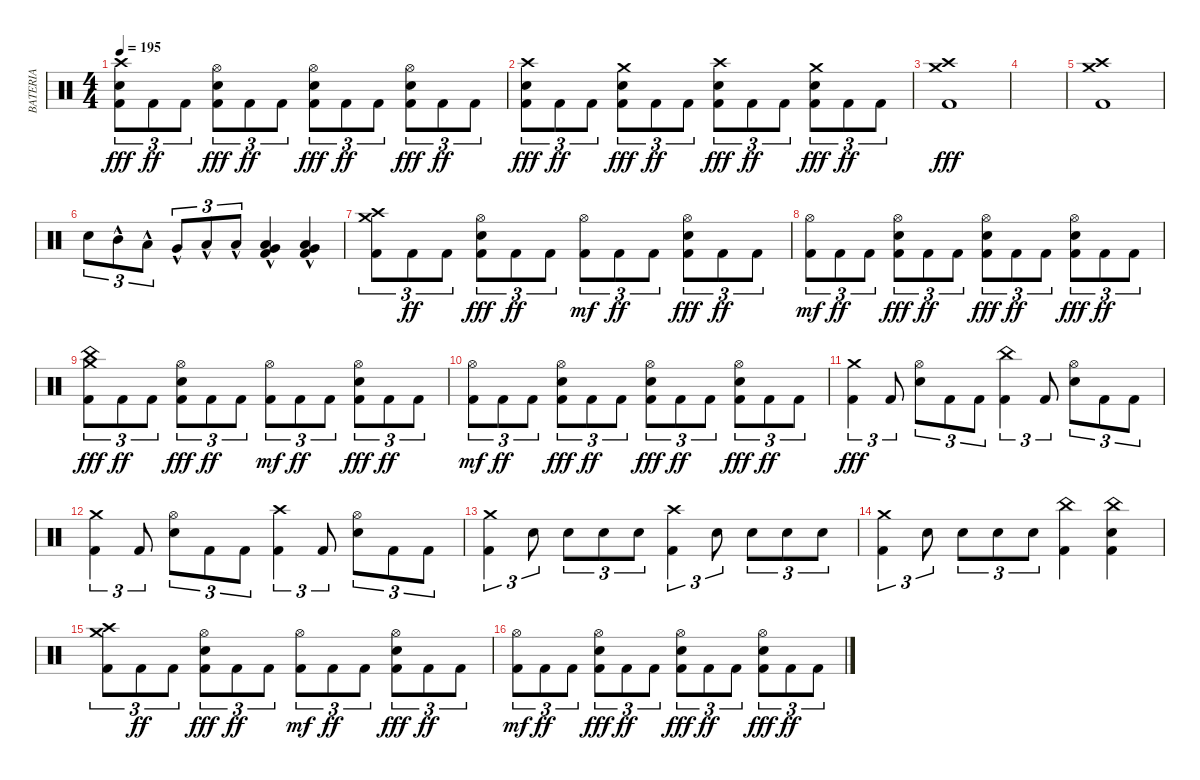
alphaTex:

\track ("BATERIA" "BATERIA") {instrument percussion}
\staff
\articulation defaults
\ts (4 4)
\tempo 195
\clef neutral
\ks c
("Kick (hit) 2" "Electric Snare (hit)" "Crash high (hit)").8{tu (3 2) dy fff} "Kick (hit) 2".8{tu (3 2) dy ff} "Kick (hit) 2".8{tu (3 2)} ("Kick (hit) 2" "Electric Snare (hit)" "Hi-Hat (open)").8{tu (3 2) dy fff} "Kick (hit) 2".8{tu (3 2) dy ff} "Kick (hit) 2".8{tu (3 2)} ("Kick (hit) 2" "Electric Snare (hit)" "Hi-Hat (open)").8{tu (3 2) dy fff} "Kick (hit) 2".8{tu (3 2) dy ff} "Kick (hit) 2".8{tu (3 2)} ("Kick (hit) 2" "Electric Snare (hit)" "Hi-Hat (open)").8{tu (3 2) dy fff} "Kick (hit) 2".8{tu (3 2) dy ff} "Kick (hit) 2".8{tu (3 2)} |
("Kick (hit) 2" "Electric Snare (hit)" "Crash high (hit)").8{tu (3 2) dy fff} "Kick (hit) 2".8{tu (3 2) dy ff} "Kick (hit) 2".8{tu (3 2)} ("Kick (hit) 2" "Electric Snare (hit)" "Crash medium (hit)").8{tu (3 2) dy fff} "Kick (hit) 2".8{tu (3 2) dy ff} "Kick (hit) 2".8{tu (3 2)} ("Kick (hit) 2" "Electric Snare (hit)" "Crash high (hit)").8{tu (3 2) dy fff} "Kick (hit) 2".8{tu (3 2) dy ff} "Kick (hit) 2".8{tu (3 2)} ("Kick (hit) 2" "Electric Snare (hit)" "Crash medium (hit)").8{tu (3 2) dy fff} "Kick (hit) 2".8{tu (3 2) dy ff} "Kick (hit) 2".8{tu (3 2)} |
("Kick (hit) 2" "Crash high (hit)" "Crash medium (hit)").1{dy fff} |
|
("Kick (hit) 2" "Crash high (hit)" "Crash medium (hit)").1 |
"Electric Snare (hit)".8{tu (3 2)} "Mid Tom (hit)"{hac}.8{tu (3 2)} "Low Tom (hit)"{hac}.8{tu (3 2)} "Very Low Tom (hit)"{hac}.8{tu (3 2)} "Low Floor Tom (hit)"{hac}.8{tu (3 2)} "Low Floor Tom (hit)"{hac}.8{tu (3 2)} ("Kick (hit) 2" "Very Low Tom (hit)"{hac} "Low Floor Tom (hit)"{hac}).4 ("Kick (hit) 2" "Very Low Tom (hit)"{hac} "Low Floor Tom (hit)"{hac}).4 |
("Kick (hit) 2" "Crash high (hit)" "Crash medium (hit)").8{tu (3 2)} "Kick (hit) 2".8{tu (3 2) dy ff} "Kick (hit) 2".8{tu (3 2)} ("Kick (hit) 2" "Electric Snare (hit)" "Hi-Hat (open)").8{tu (3 2) dy fff} "Kick (hit) 2".8{tu (3 2) dy ff} "Kick (hit) 2".8{tu (3 2)} ("Kick (hit) 2" "Hi-Hat (open)").8{tu (3 2) dy mf} "Kick (hit) 2".8{tu (3 2) dy ff} "Kick (hit) 2".8{tu (3 2)} ("Kick (hit) 2" "Electric Snare (hit)" "Hi-Hat (open)").8{tu (3 2) dy fff} "Kick (hit) 2".8{tu (3 2) dy ff} "Kick (hit) 2".8{tu (3 2)} |
("Kick (hit) 2" "Hi-Hat (open)").8{tu (3 2) dy mf} "Kick (hit) 2".8{tu (3 2) dy ff} "Kick (hit) 2".8{tu (3 2)} ("Kick (hit) 2" "Electric Snare (hit)" "Hi-Hat (open)").8{tu (3 2) dy fff} "Kick (hit) 2".8{tu (3 2) dy ff} "Kick (hit) 2".8{tu (3 2)} ("Kick (hit) 2" "Electric Snare (hit)" "Hi-Hat (open)").8{tu (3 2) dy fff} "Kick (hit) 2".8{tu (3 2) dy ff} "Kick (hit) 2".8{tu (3 2)} ("Kick (hit) 2" "Electric Snare (hit)" "Hi-Hat (open)").8{tu (3 2) dy fff} "Kick (hit) 2".8{tu (3 2) dy ff} "Kick (hit) 2".8{tu (3 2)} |
("Kick (hit) 2" "Crash medium (hit)" "China (hit)").8{tu (3 2) dy fff} "Kick (hit) 2".8{tu (3 2) dy ff} "Kick (hit) 2".8{tu (3 2)} ("Kick (hit) 2" "Electric Snare (hit)" "Hi-Hat (open)").8{tu (3 2) dy fff} "Kick (hit) 2".8{tu (3 2) dy ff} "Kick (hit) 2".8{tu (3 2)} ("Kick (hit) 2" "Hi-Hat (open)").8{tu (3 2) dy mf} "Kick (hit) 2".8{tu (3 2) dy ff} "Kick (hit) 2".8{tu (3 2)} ("Kick (hit) 2" "Electric Snare (hit)" "Hi-Hat (open)").8{tu (3 2) dy fff} "Kick (hit) 2".8{tu (3 2) dy ff} "Kick (hit) 2".8{tu (3 2)} |
("Kick (hit) 2" "Hi-Hat (open)").8{tu (3 2) dy mf} "Kick (hit) 2".8{tu (3 2) dy ff} "Kick (hit) 2".8{tu (3 2)} ("Kick (hit) 2" "Electric Snare (hit)" "Hi-Hat (open)").8{tu (3 2) dy fff} "Kick (hit) 2".8{tu (3 2) dy ff} "Kick (hit) 2".8{tu (3 2)} ("Kick (hit) 2" "Electric Snare (hit)" "Hi-Hat (open)").8{tu (3 2) dy fff} "Kick (hit) 2".8{tu (3 2) dy ff} "Kick (hit) 2".8{tu (3 2)} ("Kick (hit) 2" "Electric Snare (hit)" "Hi-Hat (open)").8{tu (3 2) dy fff} "Kick (hit) 2".8{tu (3 2) dy ff} "Kick (hit) 2".8{tu (3 2)} |
("Kick (hit) 2" "Crash medium (hit)").4{tu (3 2) dy fff} "Kick (hit) 2".8{tu (3 2)} ("Electric Snare (hit)" "Hi-Hat (open)").8{tu (3 2)} "Kick (hit) 2".8{tu (3 2)} "Kick (hit) 2".8{tu (3 2)} ("Kick (hit) 2" "China (hit)").4{tu (3 2)} "Kick (hit) 2".8{tu (3 2)} ("Electric Snare (hit)" "Hi-Hat (open)").8{tu (3 2)} "Kick (hit) 2".8{tu (3 2)} "Kick (hit) 2".8{tu (3 2)} |
("Kick (hit) 2" "Crash medium (hit)").4{tu (3 2)} "Kick (hit) 2".8{tu (3 2)} ("Electric Snare (hit)" "Hi-Hat (open)").8{tu (3 2)} "Kick (hit) 2".8{tu (3 2)} "Kick (hit) 2".8{tu (3 2)} ("Kick (hit) 2" "Crash high (hit)").4{tu (3 2)} "Kick (hit) 2".8{tu (3 2)} ("Electric Snare (hit)" "Hi-Hat (open)").8{tu (3 2)} "Kick (hit) 2".8{tu (3 2)} "Kick (hit) 2".8{tu (3 2)} |
("Kick (hit) 2" "Crash medium (hit)").4{tu (3 2)} "Electric Snare (hit)".8{tu (3 2)} "Electric Snare (hit)".8{tu (3 2)} "Electric Snare (hit)".8{tu (3 2)} "Electric Snare (hit)".8{tu (3 2)} ("Kick (hit) 2" "Crash high (hit)").4{tu (3 2)} "Electric Snare (hit)".8{tu (3 2)} "Electric Snare (hit)".8{tu (3 2)} "Electric Snare (hit)".8{tu (3 2)} "Electric Snare (hit)".8{tu (3 2)} |
("Kick (hit) 2" "Crash medium (hit)").4{tu (3 2)} "Electric Snare (hit)".8{tu (3 2)} "Electric Snare (hit)".8{tu (3 2)} "Electric Snare (hit)".8{tu (3 2)} "Electric Snare (hit)".8{tu (3 2)} ("Kick (hit) 2" "China (hit)").4 ("Kick (hit) 2" "Electric Snare (hit)" "China (hit)").4 |
("Kick (hit) 2" "Crash high (hit)" "Crash medium (hit)").8{tu (3 2)} "Kick (hit) 2".8{tu (3 2) dy ff} "Kick (hit) 2".8{tu (3 2)} ("Kick (hit) 2" "Electric Snare (hit)" "Hi-Hat (open)").8{tu (3 2) dy fff} "Kick (hit) 2".8{tu (3 2) dy ff} "Kick (hit) 2".8{tu (3 2)} ("Kick (hit) 2" "Hi-Hat (open)").8{tu (3 2) dy mf} "Kick (hit) 2".8{tu (3 2) dy ff} "Kick (hit) 2".8{tu (3 2)} ("Kick (hit) 2" "Electric Snare (hit)" "Hi-Hat (open)").8{tu (3 2) dy fff} "Kick (hit) 2".8{tu (3 2) dy ff} "Kick (hit) 2".8{tu (3 2)} |
("Kick (hit) 2" "Hi-Hat (open)").8{tu (3 2) dy mf} "Kick (hit) 2".8{tu (3 2) dy ff} "Kick (hit) 2".8{tu (3 2)} ("Kick (hit) 2" "Electric Snare (hit)" "Hi-Hat (open)").8{tu (3 2) dy fff} "Kick (hit) 2".8{tu (3 2) dy ff} "Kick (hit) 2".8{tu (3 2)} ("Kick (hit) 2" "Electric Snare (hit)" "Hi-Hat (open)").8{tu (3 2) dy fff} "Kick (hit) 2".8{tu (3 2) dy ff} "Kick (hit) 2".8{tu (3 2)} ("Kick (hit) 2" "Electric Snare (hit)" "Hi-Hat (open)").8{tu (3 2) dy fff} "Kick (hit) 2".8{tu (3 2) dy ff} "Kick (hit) 2".8{tu (3 2)}
